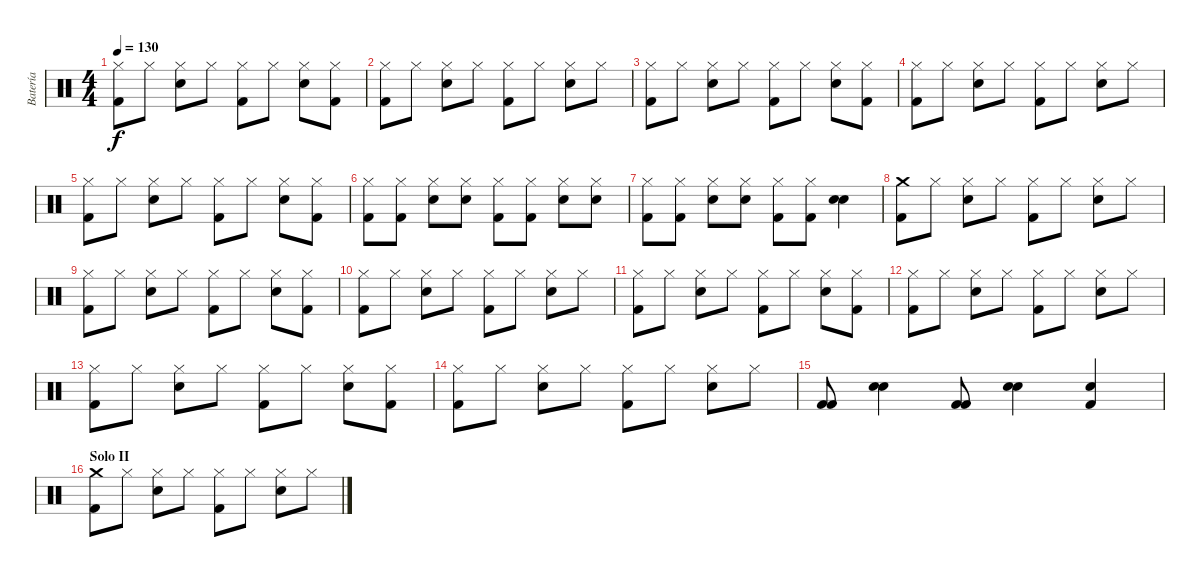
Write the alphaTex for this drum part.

\track ("Batería" "Batería") {instrument percussion}
\staff {score}
\articulation defaults
\ts (4 4)
\tempo 130
\clef neutral
\ks c
("Hi-Hat (closed)" "Kick (hit) 2").8{dy f} "Hi-Hat (closed)".8 ("Hi-Hat (closed)" "Snare (hit) 2").8 "Hi-Hat (closed)".8 ("Hi-Hat (closed)" "Kick (hit) 2").8 "Hi-Hat (closed)".8 ("Hi-Hat (closed)" "Snare (hit) 2").8 ("Hi-Hat (closed)" "Kick (hit) 2").8 |
("Hi-Hat (closed)" "Kick (hit) 2").8 "Hi-Hat (closed)".8 ("Hi-Hat (closed)" "Snare (hit) 2").8 "Hi-Hat (closed)".8 ("Hi-Hat (closed)" "Kick (hit) 2").8 "Hi-Hat (closed)".8 ("Hi-Hat (closed)" "Snare (hit) 2").8 "Hi-Hat (closed)".8 |
("Hi-Hat (closed)" "Kick (hit) 2").8 "Hi-Hat (closed)".8 ("Hi-Hat (closed)" "Snare (hit) 2").8 "Hi-Hat (closed)".8 ("Hi-Hat (closed)" "Kick (hit) 2").8 "Hi-Hat (closed)".8 ("Hi-Hat (closed)" "Snare (hit) 2").8 ("Hi-Hat (closed)" "Kick (hit) 2").8 |
("Hi-Hat (closed)" "Kick (hit) 2").8 "Hi-Hat (closed)".8 ("Hi-Hat (closed)" "Snare (hit) 2").8 "Hi-Hat (closed)".8 ("Hi-Hat (closed)" "Kick (hit) 2").8 "Hi-Hat (closed)".8 ("Hi-Hat (closed)" "Snare (hit) 2").8 "Hi-Hat (closed)".8 |
("Hi-Hat (closed)" "Kick (hit) 2").8 "Hi-Hat (closed)".8 ("Hi-Hat (closed)" "Snare (hit) 2").8 "Hi-Hat (closed)".8 ("Hi-Hat (closed)" "Kick (hit) 2").8 "Hi-Hat (closed)".8 ("Hi-Hat (closed)" "Snare (hit) 2").8 ("Hi-Hat (closed)" "Kick (hit) 2").8 |
("Hi-Hat (closed)" "Kick (hit) 2").8 ("Hi-Hat (closed)" "Kick (hit) 2").8 ("Hi-Hat (closed)" "Snare (hit) 2").8 ("Hi-Hat (closed)" "Snare (hit) 2").8 ("Hi-Hat (closed)" "Kick (hit) 2").8 ("Hi-Hat (closed)" "Kick (hit) 2").8 ("Hi-Hat (closed)" "Snare (hit) 2").8 ("Hi-Hat (closed)" "Snare (hit) 2").8 |
("Hi-Hat (closed)" "Kick (hit) 2").8 ("Hi-Hat (closed)" "Kick (hit) 2").8 ("Hi-Hat (closed)" "Snare (hit) 2").8 ("Hi-Hat (closed)" "Snare (hit) 2").8 ("Hi-Hat (closed)" "Kick (hit) 2").8 ("Hi-Hat (closed)" "Kick (hit) 2").8 ("Snare (hit) 2" "Snare (hit) 2").4 |
("Crash medium (hit)" "Kick (hit) 2").8 "Hi-Hat (closed)".8 ("Hi-Hat (closed)" "Snare (hit) 2").8 "Hi-Hat (closed)".8 ("Hi-Hat (closed)" "Kick (hit) 2").8 "Hi-Hat (closed)".8 ("Hi-Hat (closed)" "Snare (hit) 2").8 "Hi-Hat (closed)".8 |
("Hi-Hat (closed)" "Kick (hit) 2").8 "Hi-Hat (closed)".8 ("Hi-Hat (closed)" "Snare (hit) 2").8 "Hi-Hat (closed)".8 ("Hi-Hat (closed)" "Kick (hit) 2").8 "Hi-Hat (closed)".8 ("Hi-Hat (closed)" "Snare (hit) 2").8 ("Hi-Hat (closed)" "Kick (hit) 2").8 |
("Hi-Hat (closed)" "Kick (hit) 2").8 "Hi-Hat (closed)".8 ("Hi-Hat (closed)" "Snare (hit) 2").8 "Hi-Hat (closed)".8 ("Hi-Hat (closed)" "Kick (hit) 2").8 "Hi-Hat (closed)".8 ("Hi-Hat (closed)" "Snare (hit) 2").8 "Hi-Hat (closed)".8 |
("Hi-Hat (closed)" "Kick (hit) 2").8 "Hi-Hat (closed)".8 ("Hi-Hat (closed)" "Snare (hit) 2").8 "Hi-Hat (closed)".8 ("Hi-Hat (closed)" "Kick (hit) 2").8 "Hi-Hat (closed)".8 ("Hi-Hat (closed)" "Snare (hit) 2").8 ("Hi-Hat (closed)" "Kick (hit) 2").8 |
("Hi-Hat (closed)" "Kick (hit) 2").8 "Hi-Hat (closed)".8 ("Hi-Hat (closed)" "Snare (hit) 2").8 "Hi-Hat (closed)".8 ("Hi-Hat (closed)" "Kick (hit) 2").8 "Hi-Hat (closed)".8 ("Hi-Hat (closed)" "Snare (hit) 2").8 "Hi-Hat (closed)".8 |
("Hi-Hat (closed)" "Kick (hit) 2").8 "Hi-Hat (closed)".8 ("Hi-Hat (closed)" "Snare (hit) 2").8 "Hi-Hat (closed)".8 ("Hi-Hat (closed)" "Kick (hit) 2").8 "Hi-Hat (closed)".8 ("Hi-Hat (closed)" "Snare (hit) 2").8 ("Hi-Hat (closed)" "Kick (hit) 2").8 |
("Hi-Hat (closed)" "Kick (hit) 2").8 "Hi-Hat (closed)".8 ("Hi-Hat (closed)" "Snare (hit) 2").8 "Hi-Hat (closed)".8 ("Hi-Hat (closed)" "Kick (hit) 2").8 "Hi-Hat (closed)".8 ("Hi-Hat (closed)" "Snare (hit) 2").8 "Hi-Hat (closed)".8 |
("Kick (hit) 2" "Kick (hit) 2").8 ("Snare (hit) 2" "Snare (hit) 2").4 ("Kick (hit) 2" "Kick (hit) 2").8 ("Snare (hit) 2" "Snare (hit) 2").4 ("Snare (hit) 2" "Kick (hit) 2").4 |
\section ("" "Solo II")
("Crash medium (hit)" "Kick (hit) 2").8 "Hi-Hat (closed)".8 ("Hi-Hat (closed)" "Snare (hit) 2").8 "Hi-Hat (closed)".8 ("Hi-Hat (closed)" "Kick (hit) 2").8 "Hi-Hat (closed)".8 ("Hi-Hat (closed)" "Snare (hit) 2").8 "Hi-Hat (closed)".8
